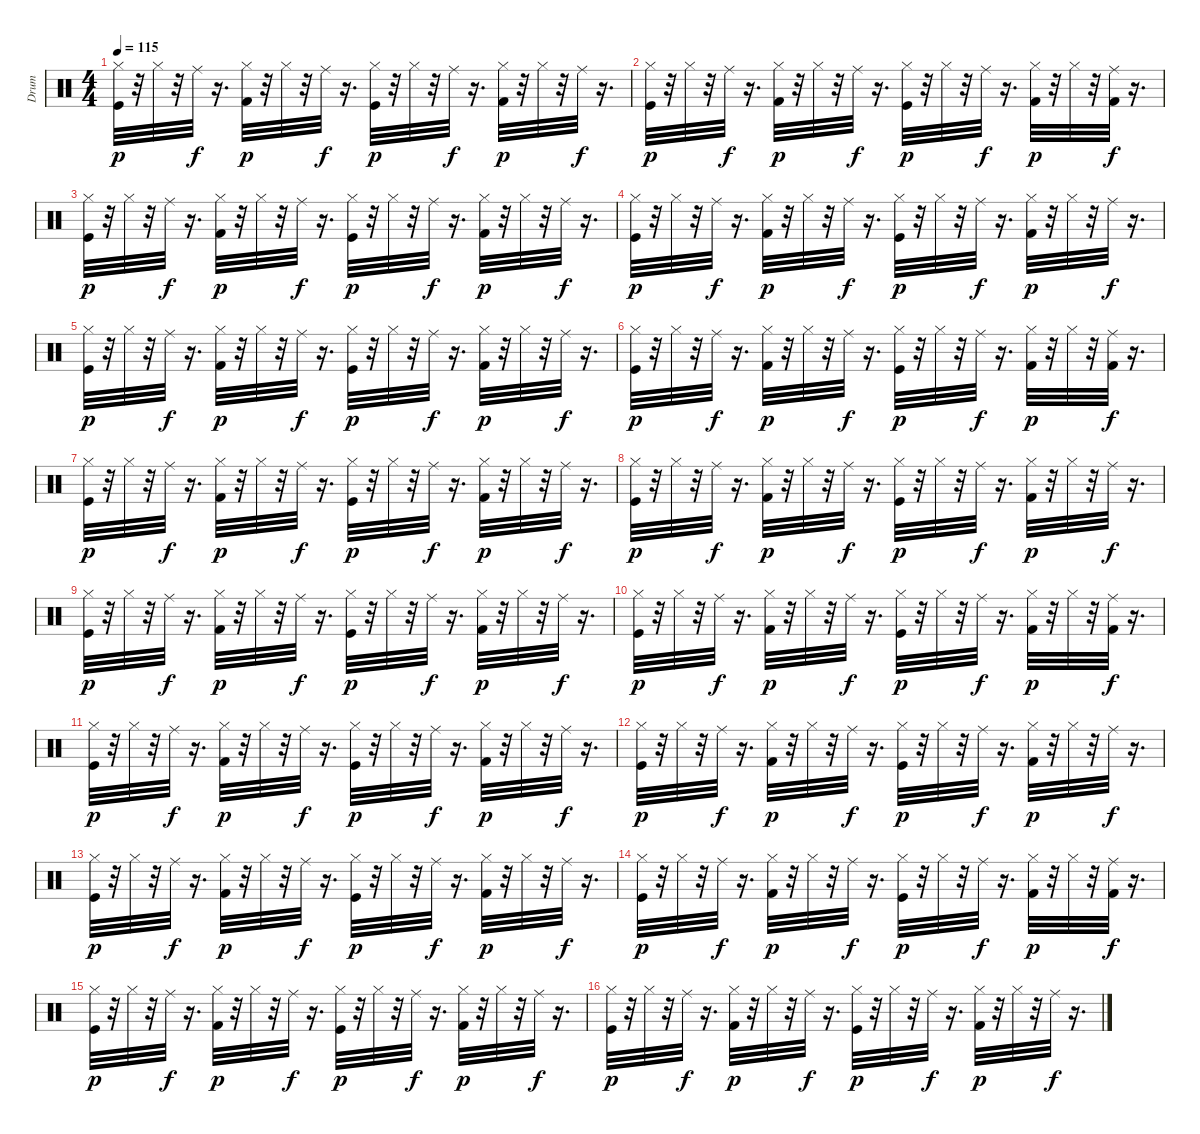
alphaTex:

\track ("Drum" "Drum") {instrument percussion}
\staff {score}
\articulation defaults
\ts (4 4)
\tempo 115
\clef neutral
\ks c
("Hi-Hat (closed)" "Kick (hit)").32{dy p} r.32 "Hi-Hat (closed)".32 r.32 "Ride (middle)".32{dy f} r.16{d} ("Hi-Hat (closed)" "Kick (hit) 2").32{dy p} r.32 "Hi-Hat (closed)".32 r.32 "Ride (middle)".32{dy f} r.16{d} ("Hi-Hat (closed)" "Kick (hit)").32{dy p} r.32 "Hi-Hat (closed)".32 r.32 "Ride (middle)".32{dy f} r.16{d} ("Hi-Hat (closed)" "Kick (hit) 2").32{dy p} r.32 "Hi-Hat (closed)".32 r.32 "Ride (middle)".32{dy f} r.16{d} |
("Hi-Hat (closed)" "Kick (hit)").32{dy p} r.32 "Hi-Hat (closed)".32 r.32 "Ride (middle)".32{dy f} r.16{d} ("Hi-Hat (closed)" "Kick (hit) 2").32{dy p} r.32 "Hi-Hat (closed)".32 r.32 "Ride (middle)".32{dy f} r.16{d} ("Hi-Hat (closed)" "Kick (hit)").32{dy p} r.32 "Hi-Hat (closed)".32 r.32 "Ride (middle)".32{dy f} r.16{d} ("Kick (hit) 2" "Hi-Hat (closed)").32{dy p} r.32 "Hi-Hat (closed)".32 r.32 ("Kick (hit) 2" "Ride (middle)").32{dy f} r.16{d} |
("Hi-Hat (closed)" "Kick (hit)").32{dy p} r.32 "Hi-Hat (closed)".32 r.32 "Ride (middle)".32{dy f} r.16{d} ("Hi-Hat (closed)" "Kick (hit) 2").32{dy p} r.32 "Hi-Hat (closed)".32 r.32 "Ride (middle)".32{dy f} r.16{d} ("Hi-Hat (closed)" "Kick (hit)").32{dy p} r.32 "Hi-Hat (closed)".32 r.32 "Ride (middle)".32{dy f} r.16{d} ("Hi-Hat (closed)" "Kick (hit) 2").32{dy p} r.32 "Hi-Hat (closed)".32 r.32 "Ride (middle)".32{dy f} r.16{d} |
("Hi-Hat (closed)" "Kick (hit)").32{dy p} r.32 "Hi-Hat (closed)".32 r.32 "Ride (middle)".32{dy f} r.16{d} ("Hi-Hat (closed)" "Kick (hit) 2").32{dy p} r.32 "Hi-Hat (closed)".32 r.32 "Ride (middle)".32{dy f} r.16{d} ("Hi-Hat (closed)" "Kick (hit)").32{dy p} r.32 "Hi-Hat (closed)".32 r.32 "Ride (middle)".32{dy f} r.16{d} ("Hi-Hat (closed)" "Kick (hit) 2").32{dy p} r.32 "Hi-Hat (closed)".32 r.32 "Ride (middle)".32{dy f} r.16{d} |
("Hi-Hat (closed)" "Kick (hit)").32{dy p} r.32 "Hi-Hat (closed)".32 r.32 "Ride (middle)".32{dy f} r.16{d} ("Hi-Hat (closed)" "Kick (hit) 2").32{dy p} r.32 "Hi-Hat (closed)".32 r.32 "Ride (middle)".32{dy f} r.16{d} ("Hi-Hat (closed)" "Kick (hit)").32{dy p} r.32 "Hi-Hat (closed)".32 r.32 "Ride (middle)".32{dy f} r.16{d} ("Hi-Hat (closed)" "Kick (hit) 2").32{dy p} r.32 "Hi-Hat (closed)".32 r.32 "Ride (middle)".32{dy f} r.16{d} |
("Hi-Hat (closed)" "Kick (hit)").32{dy p} r.32 "Hi-Hat (closed)".32 r.32 "Ride (middle)".32{dy f} r.16{d} ("Hi-Hat (closed)" "Kick (hit) 2").32{dy p} r.32 "Hi-Hat (closed)".32 r.32 "Ride (middle)".32{dy f} r.16{d} ("Hi-Hat (closed)" "Kick (hit)").32{dy p} r.32 "Hi-Hat (closed)".32 r.32 "Ride (middle)".32{dy f} r.16{d} ("Kick (hit) 2" "Hi-Hat (closed)").32{dy p} r.32 "Hi-Hat (closed)".32 r.32 ("Kick (hit) 2" "Ride (middle)").32{dy f} r.16{d} |
("Hi-Hat (closed)" "Kick (hit)").32{dy p} r.32 "Hi-Hat (closed)".32 r.32 "Ride (middle)".32{dy f} r.16{d} ("Hi-Hat (closed)" "Kick (hit) 2").32{dy p} r.32 "Hi-Hat (closed)".32 r.32 "Ride (middle)".32{dy f} r.16{d} ("Hi-Hat (closed)" "Kick (hit)").32{dy p} r.32 "Hi-Hat (closed)".32 r.32 "Ride (middle)".32{dy f} r.16{d} ("Hi-Hat (closed)" "Kick (hit) 2").32{dy p} r.32 "Hi-Hat (closed)".32 r.32 "Ride (middle)".32{dy f} r.16{d} |
("Hi-Hat (closed)" "Kick (hit)").32{dy p} r.32 "Hi-Hat (closed)".32 r.32 "Ride (middle)".32{dy f} r.16{d} ("Hi-Hat (closed)" "Kick (hit) 2").32{dy p} r.32 "Hi-Hat (closed)".32 r.32 "Ride (middle)".32{dy f} r.16{d} ("Hi-Hat (closed)" "Kick (hit)").32{dy p} r.32 "Hi-Hat (closed)".32 r.32 "Ride (middle)".32{dy f} r.16{d} ("Hi-Hat (closed)" "Kick (hit) 2").32{dy p} r.32 "Hi-Hat (closed)".32 r.32 "Ride (middle)".32{dy f} r.16{d} |
("Hi-Hat (closed)" "Kick (hit)").32{dy p} r.32 "Hi-Hat (closed)".32 r.32 "Ride (middle)".32{dy f} r.16{d} ("Hi-Hat (closed)" "Kick (hit) 2").32{dy p} r.32 "Hi-Hat (closed)".32 r.32 "Ride (middle)".32{dy f} r.16{d} ("Hi-Hat (closed)" "Kick (hit)").32{dy p} r.32 "Hi-Hat (closed)".32 r.32 "Ride (middle)".32{dy f} r.16{d} ("Hi-Hat (closed)" "Kick (hit) 2").32{dy p} r.32 "Hi-Hat (closed)".32 r.32 "Ride (middle)".32{dy f} r.16{d} |
("Hi-Hat (closed)" "Kick (hit)").32{dy p} r.32 "Hi-Hat (closed)".32 r.32 "Ride (middle)".32{dy f} r.16{d} ("Hi-Hat (closed)" "Kick (hit) 2").32{dy p} r.32 "Hi-Hat (closed)".32 r.32 "Ride (middle)".32{dy f} r.16{d} ("Hi-Hat (closed)" "Kick (hit)").32{dy p} r.32 "Hi-Hat (closed)".32 r.32 "Ride (middle)".32{dy f} r.16{d} ("Kick (hit) 2" "Hi-Hat (closed)").32{dy p} r.32 "Hi-Hat (closed)".32 r.32 ("Kick (hit) 2" "Ride (middle)").32{dy f} r.16{d} |
("Hi-Hat (closed)" "Kick (hit)").32{dy p} r.32 "Hi-Hat (closed)".32 r.32 "Ride (middle)".32{dy f} r.16{d} ("Hi-Hat (closed)" "Kick (hit) 2").32{dy p} r.32 "Hi-Hat (closed)".32 r.32 "Ride (middle)".32{dy f} r.16{d} ("Hi-Hat (closed)" "Kick (hit)").32{dy p} r.32 "Hi-Hat (closed)".32 r.32 "Ride (middle)".32{dy f} r.16{d} ("Hi-Hat (closed)" "Kick (hit) 2").32{dy p} r.32 "Hi-Hat (closed)".32 r.32 "Ride (middle)".32{dy f} r.16{d} |
("Hi-Hat (closed)" "Kick (hit)").32{dy p} r.32 "Hi-Hat (closed)".32 r.32 "Ride (middle)".32{dy f} r.16{d} ("Hi-Hat (closed)" "Kick (hit) 2").32{dy p} r.32 "Hi-Hat (closed)".32 r.32 "Ride (middle)".32{dy f} r.16{d} ("Hi-Hat (closed)" "Kick (hit)").32{dy p} r.32 "Hi-Hat (closed)".32 r.32 "Ride (middle)".32{dy f} r.16{d} ("Hi-Hat (closed)" "Kick (hit) 2").32{dy p} r.32 "Hi-Hat (closed)".32 r.32 "Ride (middle)".32{dy f} r.16{d} |
("Hi-Hat (closed)" "Kick (hit)").32{dy p} r.32 "Hi-Hat (closed)".32 r.32 "Ride (middle)".32{dy f} r.16{d} ("Hi-Hat (closed)" "Kick (hit) 2").32{dy p} r.32 "Hi-Hat (closed)".32 r.32 "Ride (middle)".32{dy f} r.16{d} ("Hi-Hat (closed)" "Kick (hit)").32{dy p} r.32 "Hi-Hat (closed)".32 r.32 "Ride (middle)".32{dy f} r.16{d} ("Hi-Hat (closed)" "Kick (hit) 2").32{dy p} r.32 "Hi-Hat (closed)".32 r.32 "Ride (middle)".32{dy f} r.16{d} |
("Hi-Hat (closed)" "Kick (hit)").32{dy p} r.32 "Hi-Hat (closed)".32 r.32 "Ride (middle)".32{dy f} r.16{d} ("Hi-Hat (closed)" "Kick (hit) 2").32{dy p} r.32 "Hi-Hat (closed)".32 r.32 "Ride (middle)".32{dy f} r.16{d} ("Hi-Hat (closed)" "Kick (hit)").32{dy p} r.32 "Hi-Hat (closed)".32 r.32 "Ride (middle)".32{dy f} r.16{d} ("Kick (hit) 2" "Hi-Hat (closed)").32{dy p} r.32 "Hi-Hat (closed)".32 r.32 ("Kick (hit) 2" "Ride (middle)").32{dy f} r.16{d} |
("Hi-Hat (closed)" "Kick (hit)").32{dy p} r.32 "Hi-Hat (closed)".32 r.32 "Ride (middle)".32{dy f} r.16{d} ("Hi-Hat (closed)" "Kick (hit) 2").32{dy p} r.32 "Hi-Hat (closed)".32 r.32 "Ride (middle)".32{dy f} r.16{d} ("Hi-Hat (closed)" "Kick (hit)").32{dy p} r.32 "Hi-Hat (closed)".32 r.32 "Ride (middle)".32{dy f} r.16{d} ("Hi-Hat (closed)" "Kick (hit) 2").32{dy p} r.32 "Hi-Hat (closed)".32 r.32 "Ride (middle)".32{dy f} r.16{d} |
("Hi-Hat (closed)" "Kick (hit)").32{dy p} r.32 "Hi-Hat (closed)".32 r.32 "Ride (middle)".32{dy f} r.16{d} ("Hi-Hat (closed)" "Kick (hit) 2").32{dy p} r.32 "Hi-Hat (closed)".32 r.32 "Ride (middle)".32{dy f} r.16{d} ("Hi-Hat (closed)" "Kick (hit)").32{dy p} r.32 "Hi-Hat (closed)".32 r.32 "Ride (middle)".32{dy f} r.16{d} ("Hi-Hat (closed)" "Kick (hit) 2").32{dy p} r.32 "Hi-Hat (closed)".32 r.32 "Ride (middle)".32{dy f} r.16{d}
